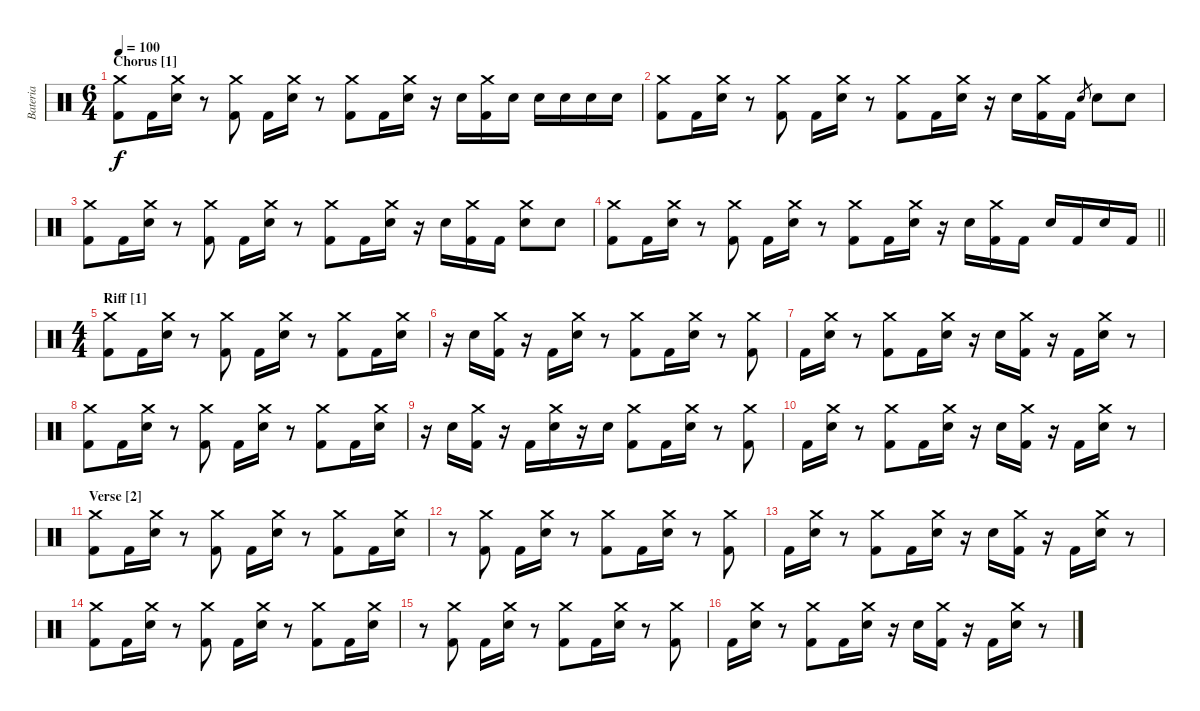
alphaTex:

\track ("Bateria" "Bateria") {instrument percussion}
\staff {score}
\articulation defaults
\ts (6 4)
\section ("" "Chorus [1]")
\tempo 100
\clef neutral
\ks c
("Crash medium (hit)" "Kick (hit) 2").8{dy f} "Kick (hit) 2".16 ("Crash medium (hit)" "Electric Snare (hit)").16 r.8 ("Crash medium (hit)" "Kick (hit) 2").8 "Kick (hit) 2".16 ("Crash medium (hit)" "Electric Snare (hit)").16 r.8 ("Crash medium (hit)" "Kick (hit) 2").8 "Kick (hit) 2".16 ("Crash medium (hit)" "Electric Snare (hit)").16 r.16 "Electric Snare (hit)".16 ("Crash medium (hit)" "Kick (hit) 2").16 "Electric Snare (hit)".16 "Electric Snare (hit)".16 "Electric Snare (hit)".16 "Electric Snare (hit)".16 "Electric Snare (hit)".16 |
("Crash medium (hit)" "Kick (hit) 2").8 "Kick (hit) 2".16 ("Crash medium (hit)" "Electric Snare (hit)").16 r.8 ("Crash medium (hit)" "Kick (hit) 2").8 "Kick (hit) 2".16 ("Crash medium (hit)" "Electric Snare (hit)").16 r.8 ("Crash medium (hit)" "Kick (hit) 2").8 "Kick (hit) 2".16 ("Crash medium (hit)" "Electric Snare (hit)").16 r.16 "Electric Snare (hit)".16 ("Crash medium (hit)" "Kick (hit) 2").16 "Kick (hit) 2".16 "Electric Snare (hit)".8{gr} "Electric Snare (hit)".8 "Electric Snare (hit)".8 |
("Crash medium (hit)" "Kick (hit) 2").8 "Kick (hit) 2".16 ("Crash medium (hit)" "Electric Snare (hit)").16 r.8 ("Crash medium (hit)" "Kick (hit) 2").8 "Kick (hit) 2".16 ("Crash medium (hit)" "Electric Snare (hit)").16 r.8 ("Crash medium (hit)" "Kick (hit) 2").8 "Kick (hit) 2".16 ("Crash medium (hit)" "Electric Snare (hit)").16 r.16 "Electric Snare (hit)".16 ("Crash medium (hit)" "Kick (hit) 2").16 "Kick (hit) 2".16 ("Crash medium (hit)" "Electric Snare (hit)").8 "Electric Snare (hit)".8 |
\barLineRight lightlight
("Crash medium (hit)" "Kick (hit) 2").8 "Kick (hit) 2".16 ("Crash medium (hit)" "Electric Snare (hit)").16 r.8 ("Crash medium (hit)" "Kick (hit) 2").8 "Kick (hit) 2".16 ("Crash medium (hit)" "Electric Snare (hit)").16 r.8 ("Crash medium (hit)" "Kick (hit) 2").8 "Kick (hit) 2".16 ("Crash medium (hit)" "Electric Snare (hit)").16 r.16 "Electric Snare (hit)".16 ("Crash medium (hit)" "Kick (hit) 2").16 "Kick (hit) 2".16 "Electric Snare (hit)".16 "Kick (hit) 2".16 "Electric Snare (hit)".16 "Kick (hit) 2".16 |
\ts (4 4)
\section ("" "Riff [1]")
("Crash medium (hit)" "Kick (hit) 2").8 "Kick (hit) 2".16 ("Crash medium (hit)" "Electric Snare (hit)").16 r.8 ("Crash medium (hit)" "Kick (hit) 2").8 "Kick (hit) 2".16 ("Crash medium (hit)" "Electric Snare (hit)").16 r.8 ("Crash medium (hit)" "Kick (hit) 2").8 "Kick (hit) 2".16 ("Crash medium (hit)" "Electric Snare (hit)").16 |
r.16 "Electric Snare (hit)".16 ("Crash medium (hit)" "Kick (hit) 2").16 r.16 "Kick (hit) 2".16 ("Crash medium (hit)" "Electric Snare (hit)").16 r.8 ("Crash medium (hit)" "Kick (hit) 2").8 "Kick (hit) 2".16 ("Crash medium (hit)" "Electric Snare (hit)").16 r.8 ("Crash medium (hit)" "Kick (hit) 2").8 |
"Kick (hit) 2".16 ("Crash medium (hit)" "Electric Snare (hit)").16 r.8 ("Crash medium (hit)" "Kick (hit) 2").8 "Kick (hit) 2".16 ("Crash medium (hit)" "Electric Snare (hit)").16 r.16 "Electric Snare (hit)".16 ("Crash medium (hit)" "Kick (hit) 2").16 r.16 "Kick (hit) 2".16 ("Crash medium (hit)" "Electric Snare (hit)").16 r.8 |
("Crash medium (hit)" "Kick (hit) 2").8 "Kick (hit) 2".16 ("Crash medium (hit)" "Electric Snare (hit)").16 r.8 ("Crash medium (hit)" "Kick (hit) 2").8 "Kick (hit) 2".16 ("Crash medium (hit)" "Electric Snare (hit)").16 r.8 ("Crash medium (hit)" "Kick (hit) 2").8 "Kick (hit) 2".16 ("Crash medium (hit)" "Electric Snare (hit)").16 |
r.16 "Electric Snare (hit)".16 ("Crash medium (hit)" "Kick (hit) 2").16 r.16 "Kick (hit) 2".16 ("Crash medium (hit)" "Electric Snare (hit)").16 r.16 "Electric Snare (hit)".16 ("Crash medium (hit)" "Kick (hit) 2").8 "Kick (hit) 2".16 ("Crash medium (hit)" "Electric Snare (hit)").16 r.8 ("Crash medium (hit)" "Kick (hit) 2").8 |
"Kick (hit) 2".16 ("Crash medium (hit)" "Electric Snare (hit)").16 r.8 ("Crash medium (hit)" "Kick (hit) 2").8 "Kick (hit) 2".16 ("Crash medium (hit)" "Electric Snare (hit)").16 r.16 "Electric Snare (hit)".16 ("Crash medium (hit)" "Kick (hit) 2").16 r.16 "Kick (hit) 2".16 ("Crash medium (hit)" "Electric Snare (hit)").16 r.8 |
\section ("" "Verse [2]")
("Crash medium (hit)" "Kick (hit) 2").8 "Kick (hit) 2".16 ("Crash medium (hit)" "Electric Snare (hit)").16 r.8 ("Crash medium (hit)" "Kick (hit) 2").8 "Kick (hit) 2".16 ("Crash medium (hit)" "Electric Snare (hit)").16 r.8 ("Crash medium (hit)" "Kick (hit) 2").8 "Kick (hit) 2".16 ("Crash medium (hit)" "Electric Snare (hit)").16 |
r.8 ("Crash medium (hit)" "Kick (hit) 2").8 "Kick (hit) 2".16 ("Crash medium (hit)" "Electric Snare (hit)").16 r.8 ("Crash medium (hit)" "Kick (hit) 2").8 "Kick (hit) 2".16 ("Crash medium (hit)" "Electric Snare (hit)").16 r.8 ("Crash medium (hit)" "Kick (hit) 2").8 |
"Kick (hit) 2".16 ("Crash medium (hit)" "Electric Snare (hit)").16 r.8 ("Crash medium (hit)" "Kick (hit) 2").8 "Kick (hit) 2".16 ("Crash medium (hit)" "Electric Snare (hit)").16 r.16 "Electric Snare (hit)".16 ("Crash medium (hit)" "Kick (hit) 2").16 r.16 "Kick (hit) 2".16 ("Crash medium (hit)" "Electric Snare (hit)").16 r.8 |
("Crash medium (hit)" "Kick (hit) 2").8 "Kick (hit) 2".16 ("Crash medium (hit)" "Electric Snare (hit)").16 r.8 ("Crash medium (hit)" "Kick (hit) 2").8 "Kick (hit) 2".16 ("Crash medium (hit)" "Electric Snare (hit)").16 r.8 ("Crash medium (hit)" "Kick (hit) 2").8 "Kick (hit) 2".16 ("Crash medium (hit)" "Electric Snare (hit)").16 |
r.8 ("Crash medium (hit)" "Kick (hit) 2").8 "Kick (hit) 2".16 ("Crash medium (hit)" "Electric Snare (hit)").16 r.8 ("Crash medium (hit)" "Kick (hit) 2").8 "Kick (hit) 2".16 ("Crash medium (hit)" "Electric Snare (hit)").16 r.8 ("Crash medium (hit)" "Kick (hit) 2").8 |
"Kick (hit) 2".16 ("Crash medium (hit)" "Electric Snare (hit)").16 r.8 ("Crash medium (hit)" "Kick (hit) 2").8 "Kick (hit) 2".16 ("Crash medium (hit)" "Electric Snare (hit)").16 r.16 "Electric Snare (hit)".16 ("Crash medium (hit)" "Kick (hit) 2").16 r.16 "Kick (hit) 2".16 ("Crash medium (hit)" "Electric Snare (hit)").16 r.8
